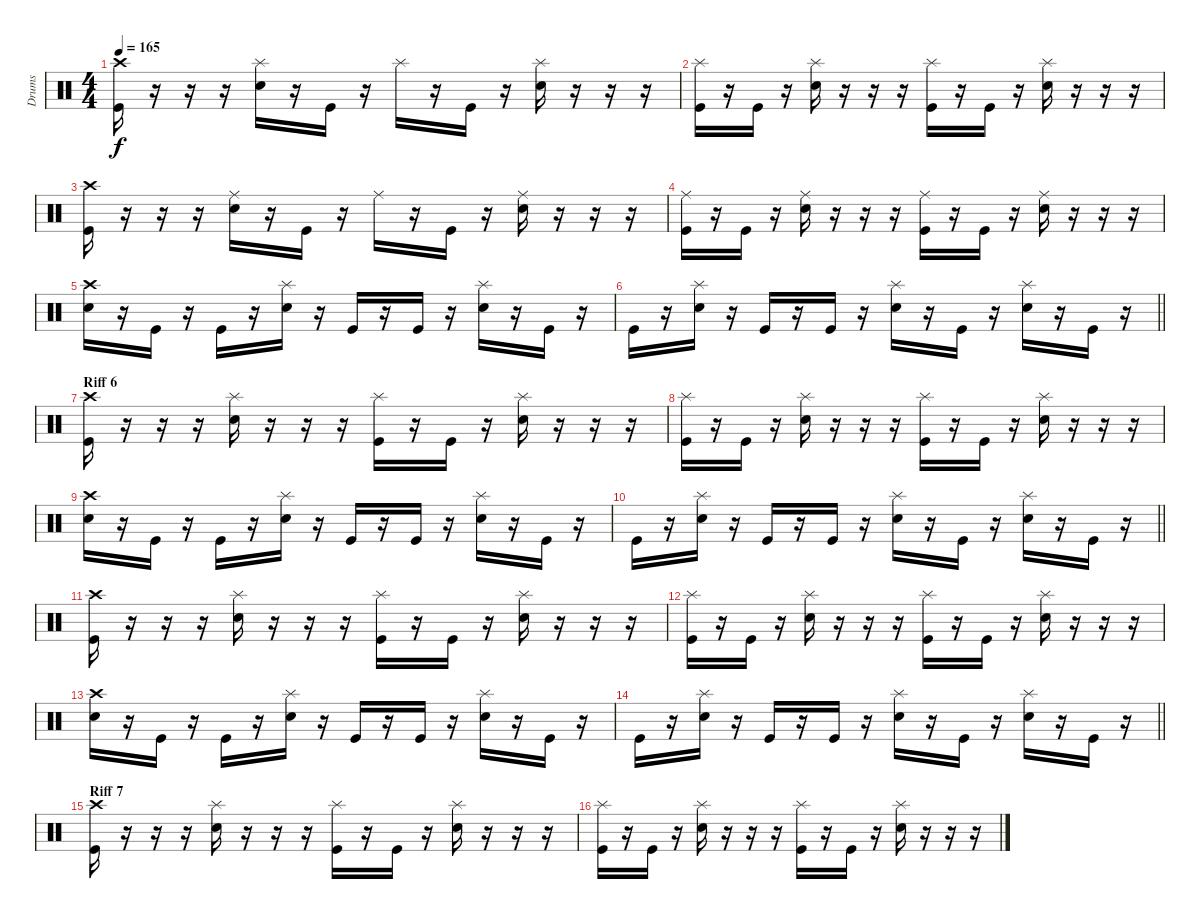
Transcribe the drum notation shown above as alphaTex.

\track ("Drums" "Drums") {instrument percussion}
\staff {score}
\articulation defaults
\ts (4 4)
\tempo 165
\clef neutral
\ks c
("Crash high (hit)" "Kick (hit)").16{dy f} r.16 r.16 r.16 ("Splash (hit)" "Electric Snare (hit)").16 r.16 "Kick (hit)".16 r.16 "Splash (hit)".16 r.16 "Kick (hit)".16 r.16 ("Splash (hit)" "Electric Snare (hit)").16 r.16 r.16 r.16 |
("Splash (hit)" "Kick (hit)").16 r.16 "Kick (hit)".16 r.16 ("Splash (hit)" "Electric Snare (hit)").16 r.16 r.16 r.16 ("Splash (hit)" "Kick (hit)").16 r.16 "Kick (hit)".16 r.16 ("Splash (hit)" "Electric Snare (hit)").16 r.16 r.16 r.16 |
("Crash high (hit)" "Kick (hit)").16 r.16 r.16 r.16 ("Ride (middle)" "Electric Snare (hit)").16 r.16 "Kick (hit)".16 r.16 "Ride (middle)".16 r.16 "Kick (hit)".16 r.16 ("Ride (middle)" "Electric Snare (hit)").16 r.16 r.16 r.16 |
("Ride (middle)" "Kick (hit)").16 r.16 "Kick (hit)".16 r.16 ("Ride (middle)" "Electric Snare (hit)").16 r.16 r.16 r.16 ("Ride (middle)" "Kick (hit)").16 r.16 "Kick (hit)".16 r.16 ("Ride (middle)" "Electric Snare (hit)").16 r.16 r.16 r.16 |
("Crash high (hit)" "Electric Snare (hit)").16 r.16 "Kick (hit)".16 r.16 "Kick (hit)".16 r.16 ("Splash (hit)" "Electric Snare (hit)").16 r.16 "Kick (hit)".16 r.16 "Kick (hit)".16 r.16 ("Splash (hit)" "Electric Snare (hit)").16 r.16 "Kick (hit)".16 r.16 |
\barLineRight lightlight "Kick (hit)".16
r.16 ("Splash (hit)" "Electric Snare (hit)").16 r.16 "Kick (hit)".16 r.16 "Kick (hit)".16 r.16 ("Splash (hit)" "Electric Snare (hit)").16 r.16 "Kick (hit)".16 r.16 ("Splash (hit)" "Electric Snare (hit)").16 r.16 "Kick (hit)".16 r.16 |
\section ("" "Riff 6")
("Crash high (hit)" "Kick (hit)").16 r.16 r.16 r.16 ("Splash (hit)" "Electric Snare (hit)").16 r.16 r.16 r.16 ("Splash (hit)" "Kick (hit)").16 r.16 "Kick (hit)".16 r.16 ("Splash (hit)" "Electric Snare (hit)").16 r.16 r.16 r.16 |
("Splash (hit)" "Kick (hit)").16 r.16 "Kick (hit)".16 r.16 ("Splash (hit)" "Electric Snare (hit)").16 r.16 r.16 r.16 ("Splash (hit)" "Kick (hit)").16 r.16 "Kick (hit)".16 r.16 ("Splash (hit)" "Electric Snare (hit)").16 r.16 r.16 r.16 |
("Crash high (hit)" "Electric Snare (hit)").16 r.16 "Kick (hit)".16 r.16 "Kick (hit)".16 r.16 ("Splash (hit)" "Electric Snare (hit)").16 r.16 "Kick (hit)".16 r.16 "Kick (hit)".16 r.16 ("Splash (hit)" "Electric Snare (hit)").16 r.16 "Kick (hit)".16 r.16 |
\barLineRight lightlight "Kick (hit)".16
r.16 ("Splash (hit)" "Electric Snare (hit)").16 r.16 "Kick (hit)".16 r.16 "Kick (hit)".16 r.16 ("Splash (hit)" "Electric Snare (hit)").16 r.16 "Kick (hit)".16 r.16 ("Splash (hit)" "Electric Snare (hit)").16 r.16 "Kick (hit)".16 r.16 |
("Crash high (hit)" "Kick (hit)").16 r.16 r.16 r.16 ("Splash (hit)" "Electric Snare (hit)").16 r.16 r.16 r.16 ("Splash (hit)" "Kick (hit)").16 r.16 "Kick (hit)".16 r.16 ("Splash (hit)" "Electric Snare (hit)").16 r.16 r.16 r.16 |
("Splash (hit)" "Kick (hit)").16 r.16 "Kick (hit)".16 r.16 ("Splash (hit)" "Electric Snare (hit)").16 r.16 r.16 r.16 ("Splash (hit)" "Kick (hit)").16 r.16 "Kick (hit)".16 r.16 ("Splash (hit)" "Electric Snare (hit)").16 r.16 r.16 r.16 |
("Crash high (hit)" "Electric Snare (hit)").16 r.16 "Kick (hit)".16 r.16 "Kick (hit)".16 r.16 ("Splash (hit)" "Electric Snare (hit)").16 r.16 "Kick (hit)".16 r.16 "Kick (hit)".16 r.16 ("Splash (hit)" "Electric Snare (hit)").16 r.16 "Kick (hit)".16 r.16 |
\barLineRight lightlight "Kick (hit)".16
r.16 ("Splash (hit)" "Electric Snare (hit)").16 r.16 "Kick (hit)".16 r.16 "Kick (hit)".16 r.16 ("Splash (hit)" "Electric Snare (hit)").16 r.16 "Kick (hit)".16 r.16 ("Splash (hit)" "Electric Snare (hit)").16 r.16 "Kick (hit)".16 r.16 |
\section ("" "Riff 7")
("Crash high (hit)" "Kick (hit)").16 r.16 r.16 r.16 ("Splash (hit)" "Electric Snare (hit)").16 r.16 r.16 r.16 ("Splash (hit)" "Kick (hit)").16 r.16 "Kick (hit)".16 r.16 ("Splash (hit)" "Electric Snare (hit)").16 r.16 r.16 r.16 |
("Splash (hit)" "Kick (hit)").16 r.16 "Kick (hit)".16 r.16 ("Splash (hit)" "Electric Snare (hit)").16 r.16 r.16 r.16 ("Splash (hit)" "Kick (hit)").16 r.16 "Kick (hit)".16 r.16 ("Splash (hit)" "Electric Snare (hit)").16 r.16 r.16 r.16
